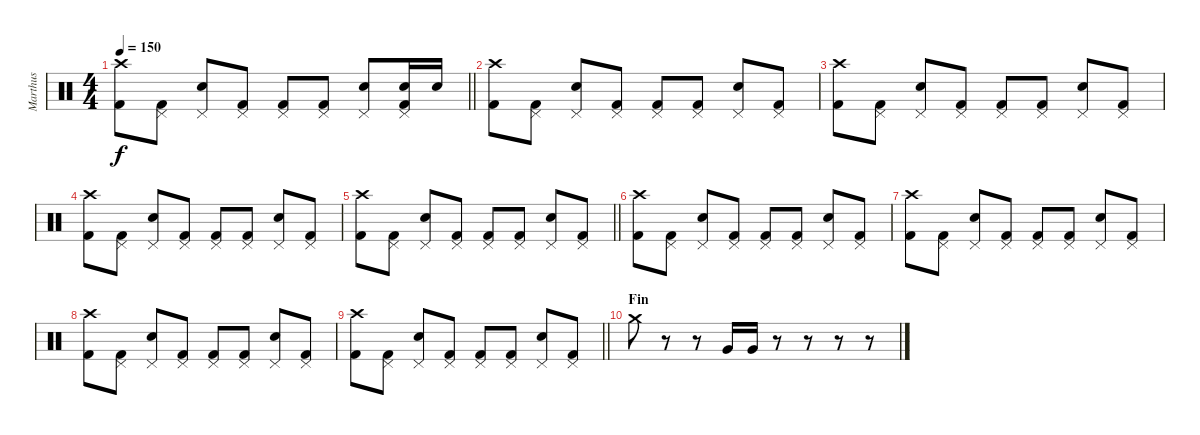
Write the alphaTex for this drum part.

\track ("Marthus" "Marthus") {instrument percussion}
\staff {score}
\articulation defaults
\ts (4 4)
\tempo 150
\clef neutral
\barLineRight lightlight
\ks c
("Kick (hit) 2" "Crash high (hit)").8{dy f} ("Kick (hit) 2" "Pedal Hi-Hat (hit)").8 ("Electric Snare (hit)" "Pedal Hi-Hat (hit)").8 ("Kick (hit) 2" "Pedal Hi-Hat (hit)").8 ("Kick (hit) 2" "Pedal Hi-Hat (hit)").8 ("Kick (hit) 2" "Pedal Hi-Hat (hit)").8 ("Electric Snare (hit)" "Pedal Hi-Hat (hit)").8 ("Kick (hit) 2" "Electric Snare (hit)" "Pedal Hi-Hat (hit)").16 "Electric Snare (hit)".16 |
("Kick (hit) 2" "Crash high (hit)").8 ("Kick (hit) 2" "Pedal Hi-Hat (hit)").8 ("Electric Snare (hit)" "Pedal Hi-Hat (hit)").8 ("Kick (hit) 2" "Pedal Hi-Hat (hit)").8 ("Kick (hit) 2" "Pedal Hi-Hat (hit)").8 ("Kick (hit) 2" "Pedal Hi-Hat (hit)").8 ("Electric Snare (hit)" "Pedal Hi-Hat (hit)").8 ("Kick (hit) 2" "Pedal Hi-Hat (hit)").8 |
("Kick (hit) 2" "Crash high (hit)").8 ("Kick (hit) 2" "Pedal Hi-Hat (hit)").8 ("Electric Snare (hit)" "Pedal Hi-Hat (hit)").8 ("Kick (hit) 2" "Pedal Hi-Hat (hit)").8 ("Kick (hit) 2" "Pedal Hi-Hat (hit)").8 ("Kick (hit) 2" "Pedal Hi-Hat (hit)").8 ("Electric Snare (hit)" "Pedal Hi-Hat (hit)").8 ("Kick (hit) 2" "Pedal Hi-Hat (hit)").8 |
("Kick (hit) 2" "Crash high (hit)").8 ("Kick (hit) 2" "Pedal Hi-Hat (hit)").8 ("Electric Snare (hit)" "Pedal Hi-Hat (hit)").8 ("Kick (hit) 2" "Pedal Hi-Hat (hit)").8 ("Kick (hit) 2" "Pedal Hi-Hat (hit)").8 ("Kick (hit) 2" "Pedal Hi-Hat (hit)").8 ("Electric Snare (hit)" "Pedal Hi-Hat (hit)").8 ("Kick (hit) 2" "Pedal Hi-Hat (hit)").8 |
\barLineRight lightlight
("Kick (hit) 2" "Crash high (hit)").8 ("Kick (hit) 2" "Pedal Hi-Hat (hit)").8 ("Electric Snare (hit)" "Pedal Hi-Hat (hit)").8 ("Kick (hit) 2" "Pedal Hi-Hat (hit)").8 ("Kick (hit) 2" "Pedal Hi-Hat (hit)").8 ("Kick (hit) 2" "Pedal Hi-Hat (hit)").8 ("Electric Snare (hit)" "Pedal Hi-Hat (hit)").8 ("Kick (hit) 2" "Pedal Hi-Hat (hit)").8 |
("Kick (hit) 2" "Crash high (hit)").8 ("Kick (hit) 2" "Pedal Hi-Hat (hit)").8 ("Electric Snare (hit)" "Pedal Hi-Hat (hit)").8 ("Kick (hit) 2" "Pedal Hi-Hat (hit)").8 ("Kick (hit) 2" "Pedal Hi-Hat (hit)").8 ("Kick (hit) 2" "Pedal Hi-Hat (hit)").8 ("Electric Snare (hit)" "Pedal Hi-Hat (hit)").8 ("Kick (hit) 2" "Pedal Hi-Hat (hit)").8 |
("Kick (hit) 2" "Crash high (hit)").8 ("Kick (hit) 2" "Pedal Hi-Hat (hit)").8 ("Electric Snare (hit)" "Pedal Hi-Hat (hit)").8 ("Kick (hit) 2" "Pedal Hi-Hat (hit)").8 ("Kick (hit) 2" "Pedal Hi-Hat (hit)").8 ("Kick (hit) 2" "Pedal Hi-Hat (hit)").8 ("Electric Snare (hit)" "Pedal Hi-Hat (hit)").8 ("Kick (hit) 2" "Pedal Hi-Hat (hit)").8 |
("Kick (hit) 2" "Crash high (hit)").8 ("Kick (hit) 2" "Pedal Hi-Hat (hit)").8 ("Electric Snare (hit)" "Pedal Hi-Hat (hit)").8 ("Kick (hit) 2" "Pedal Hi-Hat (hit)").8 ("Kick (hit) 2" "Pedal Hi-Hat (hit)").8 ("Kick (hit) 2" "Pedal Hi-Hat (hit)").8 ("Electric Snare (hit)" "Pedal Hi-Hat (hit)").8 ("Kick (hit) 2" "Pedal Hi-Hat (hit)").8 |
\barLineRight lightlight
("Kick (hit) 2" "Crash high (hit)").8 ("Kick (hit) 2" "Pedal Hi-Hat (hit)").8 ("Electric Snare (hit)" "Pedal Hi-Hat (hit)").8 ("Kick (hit) 2" "Pedal Hi-Hat (hit)").8 ("Kick (hit) 2" "Pedal Hi-Hat (hit)").8 ("Kick (hit) 2" "Pedal Hi-Hat (hit)").8 ("Electric Snare (hit)" "Pedal Hi-Hat (hit)").8 ("Kick (hit) 2" "Pedal Hi-Hat (hit)").8 |
\section ("" "Fin")
"Crash medium (hit)".8 r.8 r.8 "Very Low Tom (hit)".16 "Very Low Tom (hit)".16 r.8 r.8 r.8 r.8
